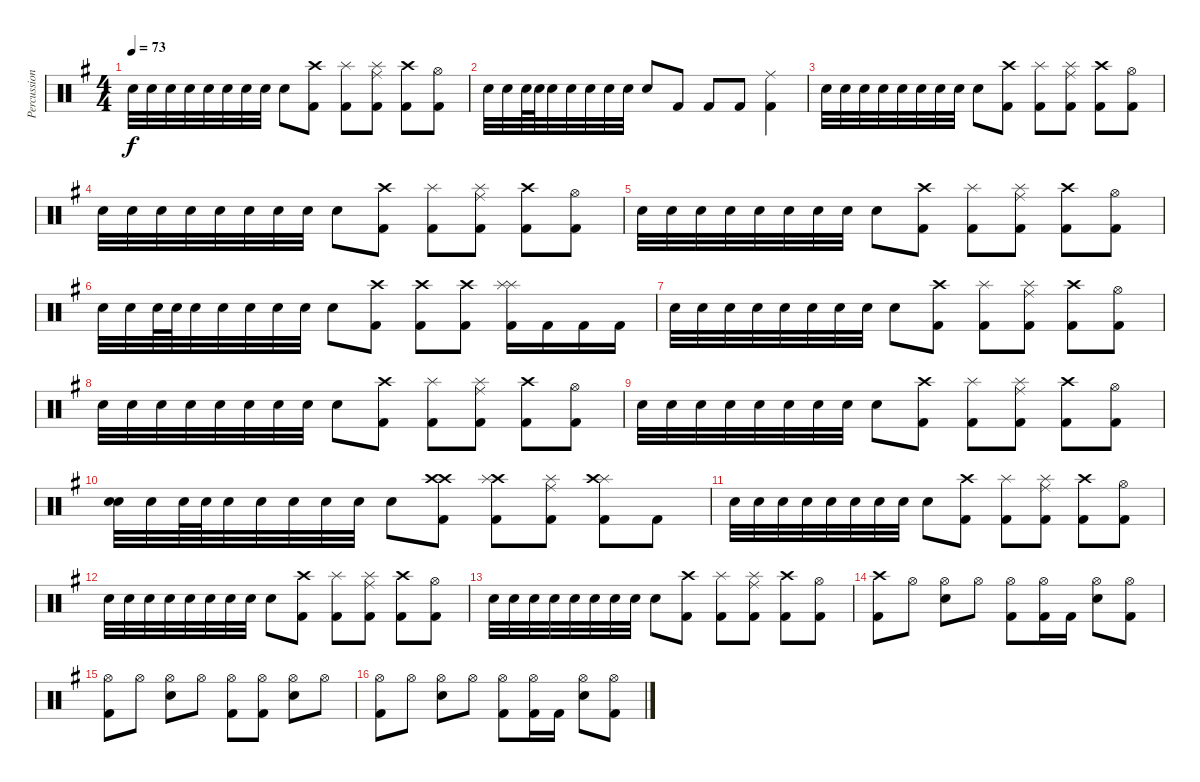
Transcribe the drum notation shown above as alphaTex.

\track ("Percussions" "Percussion") {instrument percussion}
\staff {score}
\articulation defaults
\ts (4 4)
\tempo 73
\clef neutral
\ks g "Snare (hit) 2".32{dy f} "Snare (hit) 2".32 "Snare (hit) 2".32 "Snare (hit) 2".32 "Snare (hit) 2".32 "Snare (hit) 2".32 "Snare (hit) 2".32 "Snare (hit) 2".32 "Snare (hit) 2".8
("Crash high (hit)" "Kick (hit) 2").8 ("Splash (hit)" "Kick (hit) 2").8 ("Splash (hit)" "Ride (middle)" "Kick (hit) 2").8 ("Crash high (hit)" "Kick (hit) 2").8 ("Hi-Hat (open)" "Kick (hit) 2").8 |
"Snare (hit) 2".32 "Snare (hit) 2".32 "Snare (hit) 2".64 "Snare (hit) 2".64 "Snare (hit) 2".32 "Snare (hit) 2".32 "Snare (hit) 2".32 "Snare (hit) 2".32 "Snare (hit) 2".32 "Snare (hit) 2".8 "Kick (hit) 2".8 "Kick (hit) 2".8 "Kick (hit) 2".8 ("Ride (middle)" "Kick (hit) 2").4 |
"Snare (hit) 2".32 "Snare (hit) 2".32 "Snare (hit) 2".32 "Snare (hit) 2".32 "Snare (hit) 2".32 "Snare (hit) 2".32 "Snare (hit) 2".32 "Snare (hit) 2".32 "Snare (hit) 2".8 ("Crash high (hit)" "Kick (hit) 2").8 ("Splash (hit)" "Kick (hit) 2").8 ("Splash (hit)" "Ride (middle)" "Kick (hit) 2").8 ("Crash high (hit)" "Kick (hit) 2").8 ("Hi-Hat (open)" "Kick (hit) 2").8 |
"Snare (hit) 2".32 "Snare (hit) 2".32 "Snare (hit) 2".32 "Snare (hit) 2".32 "Snare (hit) 2".32 "Snare (hit) 2".32 "Snare (hit) 2".32 "Snare (hit) 2".32 "Snare (hit) 2".8 ("Crash high (hit)" "Kick (hit) 2").8 ("Splash (hit)" "Kick (hit) 2").8 ("Splash (hit)" "Ride (middle)" "Kick (hit) 2").8 ("Crash high (hit)" "Kick (hit) 2").8 ("Hi-Hat (open)" "Kick (hit) 2").8 |
"Snare (hit) 2".32 "Snare (hit) 2".32 "Snare (hit) 2".32 "Snare (hit) 2".32 "Snare (hit) 2".32 "Snare (hit) 2".32 "Snare (hit) 2".32 "Snare (hit) 2".32 "Snare (hit) 2".8 ("Crash high (hit)" "Kick (hit) 2").8 ("Splash (hit)" "Kick (hit) 2").8 ("Splash (hit)" "Ride (middle)" "Kick (hit) 2").8 ("Crash high (hit)" "Kick (hit) 2").8 ("Hi-Hat (open)" "Kick (hit) 2").8 |
"Snare (hit) 2".32 "Snare (hit) 2".32 "Snare (hit) 2".64 "Snare (hit) 2".64 "Snare (hit) 2".32 "Snare (hit) 2".32 "Snare (hit) 2".32 "Snare (hit) 2".32 "Snare (hit) 2".32 "Snare (hit) 2".8 ("Crash high (hit)" "Kick (hit) 2").8 ("Crash high (hit)" "Kick (hit) 2").8 ("Crash high (hit)" "Kick (hit) 2").8 ("Splash (hit)" "Splash (hit)" "Kick (hit) 2").16 "Kick (hit) 2".16 "Kick (hit) 2".16 "Kick (hit) 2".16 |
"Snare (hit) 2".32 "Snare (hit) 2".32 "Snare (hit) 2".32 "Snare (hit) 2".32 "Snare (hit) 2".32 "Snare (hit) 2".32 "Snare (hit) 2".32 "Snare (hit) 2".32 "Snare (hit) 2".8 ("Crash high (hit)" "Kick (hit) 2").8 ("Splash (hit)" "Kick (hit) 2").8 ("Splash (hit)" "Ride (middle)" "Kick (hit) 2").8 ("Crash high (hit)" "Kick (hit) 2").8 ("Hi-Hat (open)" "Kick (hit) 2").8 |
"Snare (hit) 2".32 "Snare (hit) 2".32 "Snare (hit) 2".32 "Snare (hit) 2".32 "Snare (hit) 2".32 "Snare (hit) 2".32 "Snare (hit) 2".32 "Snare (hit) 2".32 "Snare (hit) 2".8 ("Crash high (hit)" "Kick (hit) 2").8 ("Splash (hit)" "Kick (hit) 2").8 ("Splash (hit)" "Ride (middle)" "Kick (hit) 2").8 ("Crash high (hit)" "Kick (hit) 2").8 ("Hi-Hat (open)" "Kick (hit) 2").8 |
"Snare (hit) 2".32 "Snare (hit) 2".32 "Snare (hit) 2".32 "Snare (hit) 2".32 "Snare (hit) 2".32 "Snare (hit) 2".32 "Snare (hit) 2".32 "Snare (hit) 2".32 "Snare (hit) 2".8 ("Crash high (hit)" "Kick (hit) 2").8 ("Splash (hit)" "Kick (hit) 2").8 ("Splash (hit)" "Ride (middle)" "Kick (hit) 2").8 ("Crash high (hit)" "Kick (hit) 2").8 ("Hi-Hat (open)" "Kick (hit) 2").8 |
("Electric Snare (hit)" "Snare (hit) 2").32 "Snare (hit) 2".32 "Snare (hit) 2".64 "Snare (hit) 2".64 "Snare (hit) 2".32 "Snare (hit) 2".32 "Snare (hit) 2".32 "Snare (hit) 2".32 "Snare (hit) 2".32 "Snare (hit) 2".8 ("Crash high (hit)" "Crash high (hit)" "Kick (hit) 2").8 ("Crash high (hit)" "Splash (hit)" "Kick (hit) 2").8 ("Splash (hit)" "Ride (middle)" "Kick (hit) 2").8 ("Splash (hit)" "Crash high (hit)" "Kick (hit) 2").8 "Kick (hit) 2".8 |
"Snare (hit) 2".32 "Snare (hit) 2".32 "Snare (hit) 2".32 "Snare (hit) 2".32 "Snare (hit) 2".32 "Snare (hit) 2".32 "Snare (hit) 2".32 "Snare (hit) 2".32 "Snare (hit) 2".8 ("Crash high (hit)" "Kick (hit) 2").8 ("Splash (hit)" "Kick (hit) 2").8 ("Splash (hit)" "Ride (middle)" "Kick (hit) 2").8 ("Crash high (hit)" "Kick (hit) 2").8 ("Hi-Hat (open)" "Kick (hit) 2").8 |
"Snare (hit) 2".32 "Snare (hit) 2".32 "Snare (hit) 2".32 "Snare (hit) 2".32 "Snare (hit) 2".32 "Snare (hit) 2".32 "Snare (hit) 2".32 "Snare (hit) 2".32 "Snare (hit) 2".8 ("Crash high (hit)" "Kick (hit) 2").8 ("Splash (hit)" "Kick (hit) 2").8 ("Splash (hit)" "Ride (middle)" "Kick (hit) 2").8 ("Crash high (hit)" "Kick (hit) 2").8 ("Hi-Hat (open)" "Kick (hit) 2").8 |
"Snare (hit) 2".32 "Snare (hit) 2".32 "Snare (hit) 2".32 "Snare (hit) 2".32 "Snare (hit) 2".32 "Snare (hit) 2".32 "Snare (hit) 2".32 "Snare (hit) 2".32 "Snare (hit) 2".8 ("Crash high (hit)" "Kick (hit) 2").8 ("Splash (hit)" "Kick (hit) 2").8 ("Splash (hit)" "Ride (middle)" "Kick (hit) 2").8 ("Crash high (hit)" "Kick (hit) 2").8 ("Hi-Hat (open)" "Kick (hit) 2").8 |
("Crash high (hit)" "Kick (hit) 2").8 "Hi-Hat (open)".8 ("Hi-Hat (open)" "Snare (hit) 2").8 "Hi-Hat (open)".8 ("Hi-Hat (open)" "Kick (hit) 2").8 ("Hi-Hat (open)" "Kick (hit) 2").16 "Kick (hit) 2".16 ("Hi-Hat (open)" "Snare (hit) 2").8 ("Hi-Hat (open)" "Kick (hit) 2").8 |
("Hi-Hat (open)" "Kick (hit) 2").8 "Hi-Hat (open)".8 ("Hi-Hat (open)" "Snare (hit) 2").8 "Hi-Hat (open)".8 ("Hi-Hat (open)" "Kick (hit) 2").8 ("Hi-Hat (open)" "Kick (hit) 2").8 ("Hi-Hat (open)" "Snare (hit) 2").8 "Hi-Hat (open)".8 |
("Hi-Hat (open)" "Kick (hit) 2").8 "Hi-Hat (open)".8 ("Hi-Hat (open)" "Snare (hit) 2").8 "Hi-Hat (open)".8 ("Hi-Hat (open)" "Kick (hit) 2").8 ("Hi-Hat (open)" "Kick (hit) 2").16 "Kick (hit) 2".16 ("Hi-Hat (open)" "Snare (hit) 2").8 ("Hi-Hat (open)" "Kick (hit) 2").8
